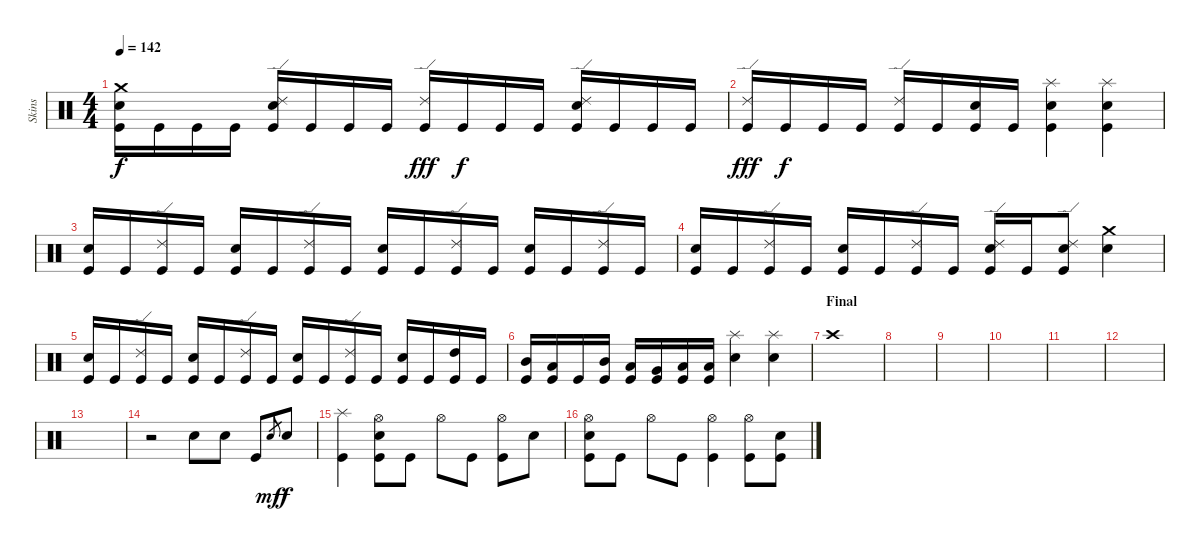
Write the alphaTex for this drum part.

\track ("Skins" "Skins") {instrument percussion}
\staff {score}
\articulation defaults
\ts (4 4)
\tempo 142
\clef neutral
\ks c
("Crash medium (hit)" "Electric Snare (hit)" "Kick (hit)").16{dy f} "Kick (hit)".16 "Kick (hit)".16 "Kick (hit)".16 ("Ride (edge) 2" "Snare (hit) 2" "Kick (hit)").16 "Kick (hit)".16 "Kick (hit)".16 "Kick (hit)".16 ("Ride (edge) 2" "Kick (hit)").16{dy fff} "Kick (hit)".16{dy f} "Kick (hit)".16 "Kick (hit)".16 ("Ride (edge) 2" "Snare (hit) 2" "Kick (hit)").16 "Kick (hit)".16 "Kick (hit)".16 "Kick (hit)".16 |
("Ride (edge) 2" "Kick (hit)").16{dy fff} "Kick (hit)".16{dy f} "Kick (hit)".16 "Kick (hit)".16 ("Ride (edge) 2" "Kick (hit)").16 "Kick (hit)".16 ("Snare (hit) 2" "Kick (hit)").16 "Kick (hit)".16 ("Splash (hit)" "Snare (hit) 2" "Kick (hit)").4 ("Splash (hit)" "Electric Snare (hit)" "Kick (hit)").4 |
("Snare (hit) 2" "Kick (hit)").16 "Kick (hit)".16 ("Ride (edge) 2" "Kick (hit)").16 "Kick (hit)".16 ("Snare (hit) 2" "Kick (hit)").16 "Kick (hit)".16 ("Ride (edge) 2" "Kick (hit)").16 "Kick (hit)".16 ("Snare (hit) 2" "Kick (hit)").16 "Kick (hit)".16 ("Ride (edge) 2" "Kick (hit)").16 "Kick (hit)".16 ("Snare (hit) 2" "Kick (hit)").16 "Kick (hit)".16 ("Ride (edge) 2" "Kick (hit)").16 "Kick (hit)".16 |
("Snare (hit) 2" "Kick (hit)").16 "Kick (hit)".16 ("Ride (edge) 2" "Kick (hit)").16 "Kick (hit)".16 ("Snare (hit) 2" "Kick (hit)").16 "Kick (hit)".16 ("Ride (edge) 2" "Kick (hit)").16 "Kick (hit)".16 ("Ride (edge) 2" "Snare (hit) 2" "Kick (hit)").16 "Kick (hit)".16 ("Ride (edge) 2" "Electric Snare (hit)" "Kick (hit)").8 ("Crash medium (hit)" "Snare (hit) 2").4 |
("Snare (hit) 2" "Kick (hit)").16 "Kick (hit)".16 ("Ride (edge) 2" "Kick (hit)").16 "Kick (hit)".16 ("Snare (hit) 2" "Kick (hit)").16 "Kick (hit)".16 ("Ride (edge) 2" "Kick (hit)").16 "Kick (hit)".16 ("Snare (hit) 2" "Kick (hit)").16 "Kick (hit)".16 ("Ride (edge) 2" "Kick (hit)").16 "Kick (hit)".16 ("Snare (hit) 2" "Kick (hit)").16 "Kick (hit)".16 ("High Tom (hit)" "Kick (hit)").16 "Kick (hit)".16 |
("Mid Tom (hit)" "Kick (hit)").16 ("Low Tom (hit)" "Kick (hit)").16 "Kick (hit)".16 ("Mid Tom (hit)" "Kick (hit)").16 ("Low Tom (hit)" "Kick (hit)").16 ("Very Low Tom (hit)" "Kick (hit)").16 ("Low Floor Tom (hit)" "Kick (hit)").16 ("Low Floor Tom (hit)" "Kick (hit)").16 ("Splash (hit)" "Snare (hit) 2").4 ("Splash (hit)" "Snare (hit) 2").4 |
\section ("" "Final")
"Crash high (hit)".1 |
|
|
|
|
|
|
r.2 "Electric Snare (hit)".8 "Electric Snare (hit)".8 "Kick (hit)".8 "Electric Snare (hit)".8{gr dy mf} "Electric Snare (hit)".8{dy f} |
("Splash (hit)" "Kick (hit)").4 ("Hi-Hat (open)" "Electric Snare (hit)" "Kick (hit)").8 "Kick (hit)".8 "Hi-Hat (open)".8 "Kick (hit)".8 ("Hi-Hat (open)" "Kick (hit)").8 "Snare (hit) 2".8 |
("Hi-Hat (open)" "Electric Snare (hit)" "Kick (hit)").8 "Kick (hit)".8 "Hi-Hat (open)".8 "Kick (hit)".8 ("Hi-Hat (open)" "Kick (hit)").4 ("Hi-Hat (open)" "Kick (hit)").8 ("Electric Snare (hit)" "Kick (hit)").8
